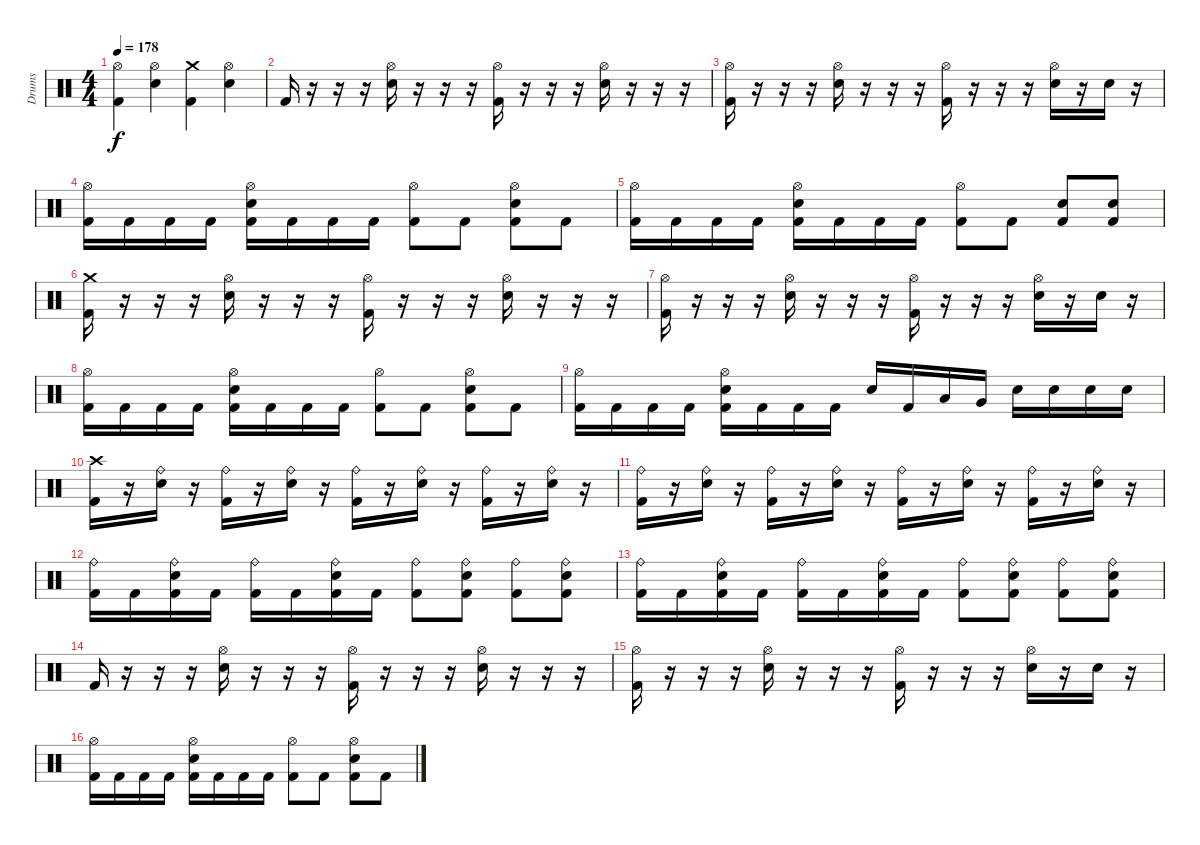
\track ("Drums" "Drums") {instrument percussion}
\staff {score}
\articulation defaults
\ts (4 4)
\tempo 178
\clef neutral
\ks c
("Hi-Hat (open)" "Kick (hit) 2").4{dy f} ("Hi-Hat (open)" "Electric Snare (hit)").4 ("Crash medium (hit)" "Kick (hit) 2").4 ("Hi-Hat (open)" "Electric Snare (hit)").4 |
"Kick (hit) 2".16 r.16 r.16 r.16 ("Hi-Hat (open)" "Electric Snare (hit)").16 r.16 r.16 r.16 ("Hi-Hat (open)" "Kick (hit) 2").16 r.16 r.16 r.16 ("Hi-Hat (open)" "Electric Snare (hit)").16 r.16 r.16 r.16 |
("Hi-Hat (open)" "Kick (hit) 2").16 r.16 r.16 r.16 ("Hi-Hat (open)" "Electric Snare (hit)").16 r.16 r.16 r.16 ("Hi-Hat (open)" "Kick (hit) 2").16 r.16 r.16 r.16 ("Hi-Hat (open)" "Electric Snare (hit)").16 r.16 "Electric Snare (hit)".16 r.16 |
("Hi-Hat (open)" "Kick (hit) 2").16 "Kick (hit) 2".16 "Kick (hit) 2".16 "Kick (hit) 2".16 ("Hi-Hat (open)" "Electric Snare (hit)" "Kick (hit) 2").16 "Kick (hit) 2".16 "Kick (hit) 2".16 "Kick (hit) 2".16 ("Hi-Hat (open)" "Kick (hit) 2").8 "Kick (hit) 2".8 ("Hi-Hat (open)" "Electric Snare (hit)" "Kick (hit) 2").8 "Kick (hit) 2".8 |
("Hi-Hat (open)" "Kick (hit) 2").16 "Kick (hit) 2".16 "Kick (hit) 2".16 "Kick (hit) 2".16 ("Hi-Hat (open)" "Electric Snare (hit)" "Kick (hit) 2").16 "Kick (hit) 2".16 "Kick (hit) 2".16 "Kick (hit) 2".16 ("Hi-Hat (open)" "Kick (hit) 2").8 "Kick (hit) 2".8 ("Electric Snare (hit)" "Kick (hit) 2").8 ("Electric Snare (hit)" "Kick (hit) 2").8 |
("Crash medium (hit)" "Kick (hit) 2").16 r.16 r.16 r.16 ("Hi-Hat (open)" "Electric Snare (hit)").16 r.16 r.16 r.16 ("Hi-Hat (open)" "Kick (hit) 2").16 r.16 r.16 r.16 ("Hi-Hat (open)" "Electric Snare (hit)").16 r.16 r.16 r.16 |
("Hi-Hat (open)" "Kick (hit) 2").16 r.16 r.16 r.16 ("Hi-Hat (open)" "Electric Snare (hit)").16 r.16 r.16 r.16 ("Hi-Hat (open)" "Kick (hit) 2").16 r.16 r.16 r.16 ("Hi-Hat (open)" "Electric Snare (hit)").16 r.16 "Electric Snare (hit)".16 r.16 |
("Hi-Hat (open)" "Kick (hit) 2").16 "Kick (hit) 2".16 "Kick (hit) 2".16 "Kick (hit) 2".16 ("Hi-Hat (open)" "Electric Snare (hit)" "Kick (hit) 2").16 "Kick (hit) 2".16 "Kick (hit) 2".16 "Kick (hit) 2".16 ("Hi-Hat (open)" "Kick (hit) 2").8 "Kick (hit) 2".8 ("Hi-Hat (open)" "Electric Snare (hit)" "Kick (hit) 2").8 "Kick (hit) 2".8 |
("Hi-Hat (open)" "Kick (hit) 2").16 "Kick (hit) 2".16 "Kick (hit) 2".16 "Kick (hit) 2".16 ("Hi-Hat (open)" "Electric Snare (hit)" "Kick (hit) 2").16 "Kick (hit) 2".16 "Kick (hit) 2".16 "Kick (hit) 2".16 "Electric Snare (hit)".16 "Kick (hit) 2".16 "Low Tom (hit)".16 "Very Low Tom (hit)".16 "Electric Snare (hit)".16 "Electric Snare (hit)".16 "Electric Snare (hit)".16 "Electric Snare (hit)".16 |
("Crash high (hit)" "Kick (hit) 2").16 r.16 ("Ride (bell)" "Electric Snare (hit)").16 r.16 ("Ride (bell)" "Kick (hit) 2").16 r.16 ("Ride (bell)" "Electric Snare (hit)").16 r.16 ("Ride (bell)" "Kick (hit) 2").16 r.16 ("Ride (bell)" "Electric Snare (hit)").16 r.16 ("Ride (bell)" "Kick (hit) 2").16 r.16 ("Ride (bell)" "Electric Snare (hit)").16 r.16 |
("Ride (bell)" "Kick (hit) 2").16 r.16 ("Ride (bell)" "Electric Snare (hit)").16 r.16 ("Ride (bell)" "Kick (hit) 2").16 r.16 ("Ride (bell)" "Electric Snare (hit)").16 r.16 ("Ride (bell)" "Kick (hit) 2").16 r.16 ("Ride (bell)" "Electric Snare (hit)").16 r.16 ("Ride (bell)" "Kick (hit) 2").16 r.16 ("Ride (bell)" "Electric Snare (hit)").16 r.16 |
("Ride (bell)" "Kick (hit) 2").16 "Kick (hit) 2".16 ("Ride (bell)" "Electric Snare (hit)" "Kick (hit) 2").16 "Kick (hit) 2".16 ("Ride (bell)" "Kick (hit) 2").16 "Kick (hit) 2".16 ("Ride (bell)" "Electric Snare (hit)" "Kick (hit) 2").16 "Kick (hit) 2".16 ("Ride (bell)" "Kick (hit) 2").8 ("Ride (bell)" "Electric Snare (hit)" "Kick (hit) 2").8 ("Ride (bell)" "Kick (hit) 2").8 ("Ride (bell)" "Electric Snare (hit)" "Kick (hit) 2").8 |
("Ride (bell)" "Kick (hit) 2").16 "Kick (hit) 2".16 ("Ride (bell)" "Electric Snare (hit)" "Kick (hit) 2").16 "Kick (hit) 2".16 ("Ride (bell)" "Kick (hit) 2").16 "Kick (hit) 2".16 ("Ride (bell)" "Electric Snare (hit)" "Kick (hit) 2").16 "Kick (hit) 2".16 ("Ride (bell)" "Kick (hit) 2").8 ("Ride (bell)" "Electric Snare (hit)" "Kick (hit) 2").8 ("Ride (bell)" "Kick (hit) 2").8 ("Ride (bell)" "Electric Snare (hit)" "Kick (hit) 2").8 |
"Kick (hit) 2".16 r.16 r.16 r.16 ("Hi-Hat (open)" "Electric Snare (hit)").16 r.16 r.16 r.16 ("Hi-Hat (open)" "Kick (hit) 2").16 r.16 r.16 r.16 ("Hi-Hat (open)" "Electric Snare (hit)").16 r.16 r.16 r.16 |
("Hi-Hat (open)" "Kick (hit) 2").16 r.16 r.16 r.16 ("Hi-Hat (open)" "Electric Snare (hit)").16 r.16 r.16 r.16 ("Hi-Hat (open)" "Kick (hit) 2").16 r.16 r.16 r.16 ("Hi-Hat (open)" "Electric Snare (hit)").16 r.16 "Electric Snare (hit)".16 r.16 |
("Hi-Hat (open)" "Kick (hit) 2").16 "Kick (hit) 2".16 "Kick (hit) 2".16 "Kick (hit) 2".16 ("Hi-Hat (open)" "Electric Snare (hit)" "Kick (hit) 2").16 "Kick (hit) 2".16 "Kick (hit) 2".16 "Kick (hit) 2".16 ("Hi-Hat (open)" "Kick (hit) 2").8 "Kick (hit) 2".8 ("Hi-Hat (open)" "Electric Snare (hit)" "Kick (hit) 2").8 "Kick (hit) 2".8
